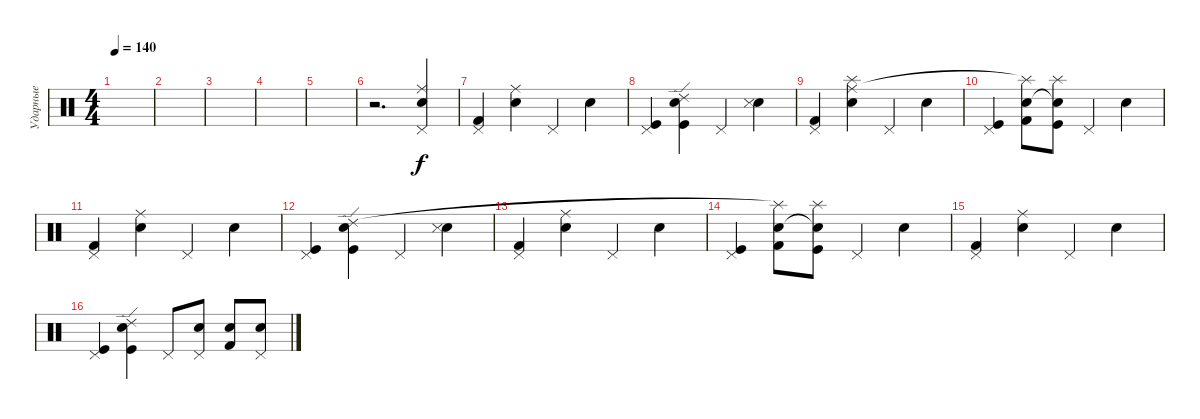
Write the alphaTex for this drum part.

\track ("Ударные" "Ударные") {instrument percussion}
\staff {score}
\articulation defaults
\ts (4 4)
\tempo 140
\clef neutral
\ks c
|
|
|
|
|
r.2{d} ("Ride (middle)" "Snare (hit) 2" "Pedal Hi-Hat (hit)").4 |
("Kick (hit) 2" "Pedal Hi-Hat (hit)").4 ("Snare (hit) 2" "Ride (middle)").4 "Pedal Hi-Hat (hit)".4 "Snare (hit) 2".4 |
("Kick (hit)" "Pedal Hi-Hat (hit)").4 ("Snare (hit) 2" "Kick (hit)" "Ride (edge) 2").4 "Pedal Hi-Hat (hit)".4 ("Snare (hit) 2" "Metronome (hit)").4 |
("Kick (hit) 2" "Pedal Hi-Hat (hit)").4 ("Snare (hit) 2" "Splash (hit)" "Ride (middle)").4 "Pedal Hi-Hat (hit)".4 "Snare (hit) 2".4 |
("Kick (hit)" "Pedal Hi-Hat (hit)").4 ("Snare (hit) 2" "Kick (hit) 2" "Splash (hit)"{t}).8 ("Snare (hit) 2"{t} "Kick (hit)" "Splash (hit)").8 "Pedal Hi-Hat (hit)".4 "Snare (hit) 2".4 |
("Kick (hit) 2" "Pedal Hi-Hat (hit)").4 ("Snare (hit) 2" "Ride (middle)").4 "Pedal Hi-Hat (hit)".4 "Snare (hit) 2".4 |
("Kick (hit)" "Pedal Hi-Hat (hit)").4 ("Snare (hit) 2" "Kick (hit)" "Ride (edge) 2").4 "Pedal Hi-Hat (hit)".4 ("Snare (hit) 2" "Metronome (hit)").4 |
("Kick (hit) 2" "Pedal Hi-Hat (hit)").4 ("Snare (hit) 2" "Ride (middle)").4 "Pedal Hi-Hat (hit)".4 "Snare (hit) 2".4 |
("Kick (hit)" "Pedal Hi-Hat (hit)").4 ("Snare (hit) 2" "Kick (hit) 2" "Splash (hit)"{t}).8 ("Snare (hit) 2"{t} "Kick (hit)" "Splash (hit)").8 "Pedal Hi-Hat (hit)".4 "Snare (hit) 2".4 |
("Kick (hit) 2" "Pedal Hi-Hat (hit)").4 ("Snare (hit) 2" "Ride (middle)").4 "Pedal Hi-Hat (hit)".4 "Snare (hit) 2".4 |
("Kick (hit)" "Pedal Hi-Hat (hit)").4 ("Snare (hit) 2" "Kick (hit)" "Ride (edge) 2").4 "Pedal Hi-Hat (hit)".8 ("Pedal Hi-Hat (hit)" "Snare (hit) 2").8 ("Kick (hit) 2" "Snare (hit) 2").8 ("Pedal Hi-Hat (hit)" "Snare (hit) 2").8
